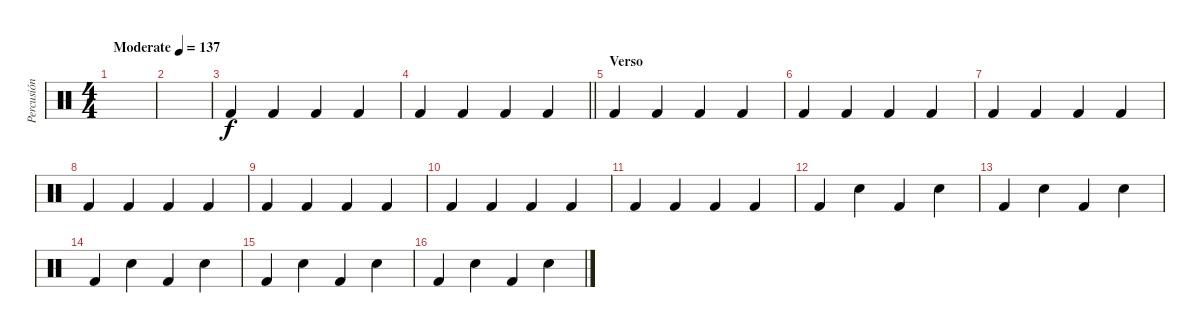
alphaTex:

\track ("Percusión" "Percusión") {instrument percussion}
\staff {score}
\articulation defaults
\ts (4 4)
\tempo (137 "Moderate")
\clef neutral
\ks c
|
|
"Kick (hit) 2".4 "Kick (hit) 2".4 "Kick (hit) 2".4 "Kick (hit) 2".4 |
\barLineRight lightlight "Kick (hit) 2".4 "Kick (hit) 2".4 "Kick (hit) 2".4 "Kick (hit) 2".4
|
\section ("" "Verso")
"Kick (hit) 2".4 "Kick (hit) 2".4 "Kick (hit) 2".4 "Kick (hit) 2".4 |
"Kick (hit) 2".4 "Kick (hit) 2".4 "Kick (hit) 2".4 "Kick (hit) 2".4 |
"Kick (hit) 2".4 "Kick (hit) 2".4 "Kick (hit) 2".4 "Kick (hit) 2".4 |
"Kick (hit) 2".4 "Kick (hit) 2".4 "Kick (hit) 2".4 "Kick (hit) 2".4 |
"Kick (hit) 2".4 "Kick (hit) 2".4 "Kick (hit) 2".4 "Kick (hit) 2".4 |
"Kick (hit) 2".4 "Kick (hit) 2".4 "Kick (hit) 2".4 "Kick (hit) 2".4 |
"Kick (hit) 2".4 "Kick (hit) 2".4 "Kick (hit) 2".4 "Kick (hit) 2".4 |
"Kick (hit) 2".4 "Electric Snare (hit)".4 "Kick (hit) 2".4 "Electric Snare (hit)".4 |
"Kick (hit) 2".4 "Electric Snare (hit)".4 "Kick (hit) 2".4 "Electric Snare (hit)".4 |
"Kick (hit) 2".4 "Electric Snare (hit)".4 "Kick (hit) 2".4 "Electric Snare (hit)".4 |
"Kick (hit) 2".4 "Electric Snare (hit)".4 "Kick (hit) 2".4 "Electric Snare (hit)".4 |
"Kick (hit) 2".4 "Electric Snare (hit)".4 "Kick (hit) 2".4 "Electric Snare (hit)".4
